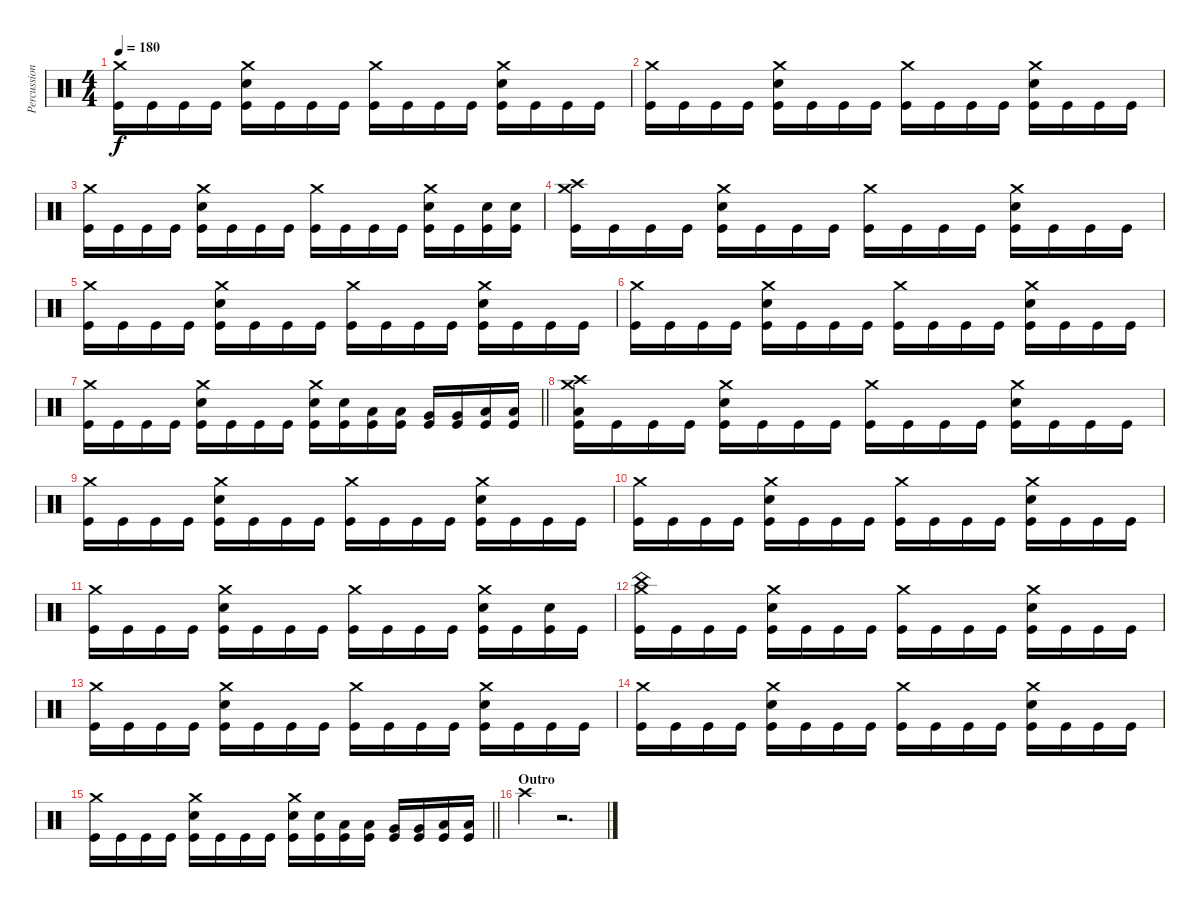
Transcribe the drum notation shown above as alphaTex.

\track ("Percussion" "Percussion") {instrument percussion}
\staff {score}
\articulation defaults
\ts (4 4)
\tempo 180
\clef neutral
\ks c
("Crash medium (hit)" "Kick (hit)").16{dy f} "Kick (hit)".16 "Kick (hit)".16 "Kick (hit)".16 ("Crash medium (hit)" "Electric Snare (hit)" "Kick (hit)").16 "Kick (hit)".16 "Kick (hit)".16 "Kick (hit)".16 ("Crash medium (hit)" "Kick (hit)").16 "Kick (hit)".16 "Kick (hit)".16 "Kick (hit)".16 ("Crash medium (hit)" "Electric Snare (hit)" "Kick (hit)").16 "Kick (hit)".16 "Kick (hit)".16 "Kick (hit)".16 |
("Crash medium (hit)" "Kick (hit)").16 "Kick (hit)".16 "Kick (hit)".16 "Kick (hit)".16 ("Crash medium (hit)" "Electric Snare (hit)" "Kick (hit)").16 "Kick (hit)".16 "Kick (hit)".16 "Kick (hit)".16 ("Crash medium (hit)" "Kick (hit)").16 "Kick (hit)".16 "Kick (hit)".16 "Kick (hit)".16 ("Crash medium (hit)" "Electric Snare (hit)" "Kick (hit)").16 "Kick (hit)".16 "Kick (hit)".16 "Kick (hit)".16 |
("Crash medium (hit)" "Kick (hit)").16 "Kick (hit)".16 "Kick (hit)".16 "Kick (hit)".16 ("Crash medium (hit)" "Electric Snare (hit)" "Kick (hit)").16 "Kick (hit)".16 "Kick (hit)".16 "Kick (hit)".16 ("Crash medium (hit)" "Kick (hit)").16 "Kick (hit)".16 "Kick (hit)".16 "Kick (hit)".16 ("Crash medium (hit)" "Electric Snare (hit)" "Kick (hit)").16 "Kick (hit)".16 ("Electric Snare (hit)" "Kick (hit)").16 ("Electric Snare (hit)" "Kick (hit)").16 |
("Crash medium (hit)" "Crash high (hit)" "Kick (hit)").16 "Kick (hit)".16 "Kick (hit)".16 "Kick (hit)".16 ("Crash medium (hit)" "Electric Snare (hit)" "Kick (hit)").16 "Kick (hit)".16 "Kick (hit)".16 "Kick (hit)".16 ("Crash medium (hit)" "Kick (hit)").16 "Kick (hit)".16 "Kick (hit)".16 "Kick (hit)".16 ("Crash medium (hit)" "Electric Snare (hit)" "Kick (hit)").16 "Kick (hit)".16 "Kick (hit)".16 "Kick (hit)".16 |
("Crash medium (hit)" "Kick (hit)").16 "Kick (hit)".16 "Kick (hit)".16 "Kick (hit)".16 ("Crash medium (hit)" "Electric Snare (hit)" "Kick (hit)").16 "Kick (hit)".16 "Kick (hit)".16 "Kick (hit)".16 ("Crash medium (hit)" "Kick (hit)").16 "Kick (hit)".16 "Kick (hit)".16 "Kick (hit)".16 ("Crash medium (hit)" "Electric Snare (hit)" "Kick (hit)").16 "Kick (hit)".16 "Kick (hit)".16 "Kick (hit)".16 |
("Crash medium (hit)" "Kick (hit)").16 "Kick (hit)".16 "Kick (hit)".16 "Kick (hit)".16 ("Crash medium (hit)" "Electric Snare (hit)" "Kick (hit)").16 "Kick (hit)".16 "Kick (hit)".16 "Kick (hit)".16 ("Crash medium (hit)" "Kick (hit)").16 "Kick (hit)".16 "Kick (hit)".16 "Kick (hit)".16 ("Crash medium (hit)" "Electric Snare (hit)" "Kick (hit)").16 "Kick (hit)".16 "Kick (hit)".16 "Kick (hit)".16 |
\barLineRight lightlight
("Crash medium (hit)" "Kick (hit)").16 "Kick (hit)".16 "Kick (hit)".16 "Kick (hit)".16 ("Crash medium (hit)" "Electric Snare (hit)" "Kick (hit)").16 "Kick (hit)".16 "Kick (hit)".16 "Kick (hit)".16 ("Crash medium (hit)" "Electric Snare (hit)" "Kick (hit)").16 ("Electric Snare (hit)" "Kick (hit)").16 ("Low Tom (hit)" "Kick (hit)").16 ("Low Tom (hit)" "Kick (hit)").16 ("Very Low Tom (hit)" "Kick (hit)").16 ("Very Low Tom (hit)" "Kick (hit)").16 ("Low Floor Tom (hit)" "Kick (hit)").16 ("Low Floor Tom (hit)" "Kick (hit)").16 |
("Crash medium (hit)" "Crash high (hit)" "Low Floor Tom (hit)" "Kick (hit)").16 "Kick (hit)".16 "Kick (hit)".16 "Kick (hit)".16 ("Crash medium (hit)" "Electric Snare (hit)" "Kick (hit)").16 "Kick (hit)".16 "Kick (hit)".16 "Kick (hit)".16 ("Crash medium (hit)" "Kick (hit)").16 "Kick (hit)".16 "Kick (hit)".16 "Kick (hit)".16 ("Crash medium (hit)" "Electric Snare (hit)" "Kick (hit)").16 "Kick (hit)".16 "Kick (hit)".16 "Kick (hit)".16 |
("Crash medium (hit)" "Kick (hit)").16 "Kick (hit)".16 "Kick (hit)".16 "Kick (hit)".16 ("Crash medium (hit)" "Electric Snare (hit)" "Kick (hit)").16 "Kick (hit)".16 "Kick (hit)".16 "Kick (hit)".16 ("Crash medium (hit)" "Kick (hit)").16 "Kick (hit)".16 "Kick (hit)".16 "Kick (hit)".16 ("Crash medium (hit)" "Electric Snare (hit)" "Kick (hit)").16 "Kick (hit)".16 "Kick (hit)".16 "Kick (hit)".16 |
("Crash medium (hit)" "Kick (hit)").16 "Kick (hit)".16 "Kick (hit)".16 "Kick (hit)".16 ("Crash medium (hit)" "Electric Snare (hit)" "Kick (hit)").16 "Kick (hit)".16 "Kick (hit)".16 "Kick (hit)".16 ("Crash medium (hit)" "Kick (hit)").16 "Kick (hit)".16 "Kick (hit)".16 "Kick (hit)".16 ("Crash medium (hit)" "Electric Snare (hit)" "Kick (hit)").16 "Kick (hit)".16 "Kick (hit)".16 "Kick (hit)".16 |
("Crash medium (hit)" "Kick (hit)").16 "Kick (hit)".16 "Kick (hit)".16 "Kick (hit)".16 ("Crash medium (hit)" "Electric Snare (hit)" "Kick (hit)").16 "Kick (hit)".16 "Kick (hit)".16 "Kick (hit)".16 ("Crash medium (hit)" "Kick (hit)").16 "Kick (hit)".16 "Kick (hit)".16 "Kick (hit)".16 ("Crash medium (hit)" "Electric Snare (hit)" "Kick (hit)").16 "Kick (hit)".16 ("Electric Snare (hit)" "Kick (hit)").16 "Kick (hit)".16 |
("Crash medium (hit)" "China (hit)" "Kick (hit)").16 "Kick (hit)".16 "Kick (hit)".16 "Kick (hit)".16 ("Crash medium (hit)" "Electric Snare (hit)" "Kick (hit)").16 "Kick (hit)".16 "Kick (hit)".16 "Kick (hit)".16 ("Crash medium (hit)" "Kick (hit)").16 "Kick (hit)".16 "Kick (hit)".16 "Kick (hit)".16 ("Crash medium (hit)" "Electric Snare (hit)" "Kick (hit)").16 "Kick (hit)".16 "Kick (hit)".16 "Kick (hit)".16 |
("Crash medium (hit)" "Kick (hit)").16 "Kick (hit)".16 "Kick (hit)".16 "Kick (hit)".16 ("Crash medium (hit)" "Electric Snare (hit)" "Kick (hit)").16 "Kick (hit)".16 "Kick (hit)".16 "Kick (hit)".16 ("Crash medium (hit)" "Kick (hit)").16 "Kick (hit)".16 "Kick (hit)".16 "Kick (hit)".16 ("Crash medium (hit)" "Electric Snare (hit)" "Kick (hit)").16 "Kick (hit)".16 "Kick (hit)".16 "Kick (hit)".16 |
("Crash medium (hit)" "Kick (hit)").16 "Kick (hit)".16 "Kick (hit)".16 "Kick (hit)".16 ("Crash medium (hit)" "Electric Snare (hit)" "Kick (hit)").16 "Kick (hit)".16 "Kick (hit)".16 "Kick (hit)".16 ("Crash medium (hit)" "Kick (hit)").16 "Kick (hit)".16 "Kick (hit)".16 "Kick (hit)".16 ("Crash medium (hit)" "Electric Snare (hit)" "Kick (hit)").16 "Kick (hit)".16 "Kick (hit)".16 "Kick (hit)".16 |
\barLineRight lightlight
("Crash medium (hit)" "Kick (hit)").16 "Kick (hit)".16 "Kick (hit)".16 "Kick (hit)".16 ("Crash medium (hit)" "Electric Snare (hit)" "Kick (hit)").16 "Kick (hit)".16 "Kick (hit)".16 "Kick (hit)".16 ("Crash medium (hit)" "Electric Snare (hit)" "Kick (hit)").16 ("Electric Snare (hit)" "Kick (hit)").16 ("Low Tom (hit)" "Kick (hit)").16 ("Low Tom (hit)" "Kick (hit)").16 ("Very Low Tom (hit)" "Kick (hit)").16 ("Very Low Tom (hit)" "Kick (hit)").16 ("Low Floor Tom (hit)" "Kick (hit)").16 ("Low Floor Tom (hit)" "Kick (hit)").16 |
\section ("" "Outro")
"Crash high (hit)".4 r.2{d volume 0}
